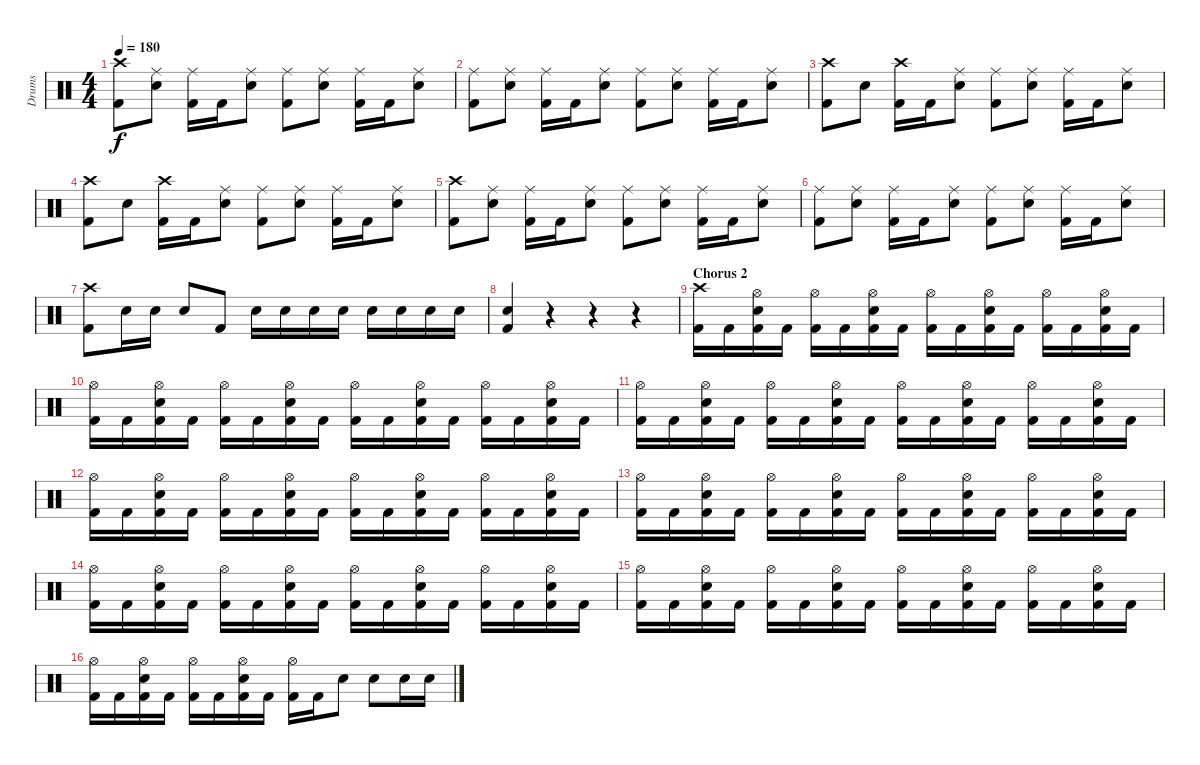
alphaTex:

\track ("Drums" "Drums") {instrument percussion}
\staff {score}
\articulation defaults
\ts (4 4)
\tempo 180
\clef neutral
\ks c
("Crash high (hit)" "Kick (hit) 2").8{dy f} ("Ride (middle)" "Snare (hit) 2").8 ("Ride (middle)" "Kick (hit) 2").16 "Kick (hit) 2".16 ("Ride (middle)" "Snare (hit) 2").8 ("Ride (middle)" "Kick (hit) 2").8 ("Ride (middle)" "Snare (hit) 2").8 ("Ride (middle)" "Kick (hit) 2").16 "Kick (hit) 2".16 ("Ride (middle)" "Snare (hit) 2").8 |
("Ride (middle)" "Kick (hit) 2").8 ("Ride (middle)" "Snare (hit) 2").8 ("Ride (middle)" "Kick (hit) 2").16 "Kick (hit) 2".16 ("Ride (middle)" "Snare (hit) 2").8 ("Ride (middle)" "Kick (hit) 2").8 ("Ride (middle)" "Snare (hit) 2").8 ("Ride (middle)" "Kick (hit) 2").16 "Kick (hit) 2".16 ("Ride (middle)" "Snare (hit) 2").8 |
("Crash high (hit)" "Kick (hit) 2").8 "Snare (hit) 2".8 ("Crash high (hit)" "Kick (hit) 2").16 "Kick (hit) 2".16 ("Ride (middle)" "Snare (hit) 2").8 ("Ride (middle)" "Kick (hit) 2").8 ("Ride (middle)" "Snare (hit) 2").8 ("Ride (middle)" "Kick (hit) 2").16 "Kick (hit) 2".16 ("Ride (middle)" "Snare (hit) 2").8 |
("Crash high (hit)" "Kick (hit) 2").8 "Snare (hit) 2".8 ("Crash high (hit)" "Kick (hit) 2").16 "Kick (hit) 2".16 ("Ride (middle)" "Snare (hit) 2").8 ("Ride (middle)" "Kick (hit) 2").8 ("Ride (middle)" "Snare (hit) 2").8 ("Ride (middle)" "Kick (hit) 2").16 "Kick (hit) 2".16 ("Ride (middle)" "Snare (hit) 2").8 |
("Crash high (hit)" "Kick (hit) 2").8 ("Ride (middle)" "Snare (hit) 2").8 ("Ride (middle)" "Kick (hit) 2").16 "Kick (hit) 2".16 ("Ride (middle)" "Snare (hit) 2").8 ("Ride (middle)" "Kick (hit) 2").8 ("Ride (middle)" "Snare (hit) 2").8 ("Ride (middle)" "Kick (hit) 2").16 "Kick (hit) 2".16 ("Ride (middle)" "Snare (hit) 2").8 |
("Ride (middle)" "Kick (hit) 2").8 ("Ride (middle)" "Snare (hit) 2").8 ("Ride (middle)" "Kick (hit) 2").16 "Kick (hit) 2".16 ("Ride (middle)" "Snare (hit) 2").8 ("Ride (middle)" "Kick (hit) 2").8 ("Ride (middle)" "Snare (hit) 2").8 ("Ride (middle)" "Kick (hit) 2").16 "Kick (hit) 2".16 ("Ride (middle)" "Snare (hit) 2").8 |
("Crash high (hit)" "Kick (hit) 2").8 "Snare (hit) 2".16 "Snare (hit) 2".16 "Snare (hit) 2".8 "Kick (hit) 2".8 "Snare (hit) 2".16 "Snare (hit) 2".16 "Snare (hit) 2".16 "Snare (hit) 2".16 "Snare (hit) 2".16 "Snare (hit) 2".16 "Snare (hit) 2".16 "Snare (hit) 2".16 |
("Snare (hit) 2" "Kick (hit) 2").4 r.4 r.4 r.4 |
\section ("" "Chorus 2")
("Crash high (hit)" "Kick (hit) 2").16 "Kick (hit) 2".16 ("Hi-Hat (open)" "Snare (hit) 2" "Kick (hit) 2").16 "Kick (hit) 2".16 ("Hi-Hat (open)" "Kick (hit) 2").16 "Kick (hit) 2".16 ("Hi-Hat (open)" "Snare (hit) 2" "Kick (hit) 2").16 "Kick (hit) 2".16 ("Hi-Hat (open)" "Kick (hit) 2").16 "Kick (hit) 2".16 ("Hi-Hat (open)" "Snare (hit) 2" "Kick (hit) 2").16 "Kick (hit) 2".16 ("Hi-Hat (open)" "Kick (hit) 2").16 "Kick (hit) 2".16 ("Hi-Hat (open)" "Snare (hit) 2" "Kick (hit) 2").16 "Kick (hit) 2".16 |
("Hi-Hat (open)" "Kick (hit) 2").16 "Kick (hit) 2".16 ("Hi-Hat (open)" "Snare (hit) 2" "Kick (hit) 2").16 "Kick (hit) 2".16 ("Hi-Hat (open)" "Kick (hit) 2").16 "Kick (hit) 2".16 ("Hi-Hat (open)" "Snare (hit) 2" "Kick (hit) 2").16 "Kick (hit) 2".16 ("Hi-Hat (open)" "Kick (hit) 2").16 "Kick (hit) 2".16 ("Hi-Hat (open)" "Snare (hit) 2" "Kick (hit) 2").16 "Kick (hit) 2".16 ("Hi-Hat (open)" "Kick (hit) 2").16 "Kick (hit) 2".16 ("Hi-Hat (open)" "Snare (hit) 2" "Kick (hit) 2").16 "Kick (hit) 2".16 |
("Hi-Hat (open)" "Kick (hit) 2").16 "Kick (hit) 2".16 ("Hi-Hat (open)" "Snare (hit) 2" "Kick (hit) 2").16 "Kick (hit) 2".16 ("Hi-Hat (open)" "Kick (hit) 2").16 "Kick (hit) 2".16 ("Hi-Hat (open)" "Snare (hit) 2" "Kick (hit) 2").16 "Kick (hit) 2".16 ("Hi-Hat (open)" "Kick (hit) 2").16 "Kick (hit) 2".16 ("Hi-Hat (open)" "Snare (hit) 2" "Kick (hit) 2").16 "Kick (hit) 2".16 ("Hi-Hat (open)" "Kick (hit) 2").16 "Kick (hit) 2".16 ("Hi-Hat (open)" "Snare (hit) 2" "Kick (hit) 2").16 "Kick (hit) 2".16 |
("Hi-Hat (open)" "Kick (hit) 2").16 "Kick (hit) 2".16 ("Hi-Hat (open)" "Snare (hit) 2" "Kick (hit) 2").16 "Kick (hit) 2".16 ("Hi-Hat (open)" "Kick (hit) 2").16 "Kick (hit) 2".16 ("Hi-Hat (open)" "Snare (hit) 2" "Kick (hit) 2").16 "Kick (hit) 2".16 ("Hi-Hat (open)" "Kick (hit) 2").16 "Kick (hit) 2".16 ("Hi-Hat (open)" "Snare (hit) 2" "Kick (hit) 2").16 "Kick (hit) 2".16 ("Hi-Hat (open)" "Kick (hit) 2").16 "Kick (hit) 2".16 ("Hi-Hat (open)" "Snare (hit) 2" "Kick (hit) 2").16 "Kick (hit) 2".16 |
("Hi-Hat (open)" "Kick (hit) 2").16 "Kick (hit) 2".16 ("Hi-Hat (open)" "Snare (hit) 2" "Kick (hit) 2").16 "Kick (hit) 2".16 ("Hi-Hat (open)" "Kick (hit) 2").16 "Kick (hit) 2".16 ("Hi-Hat (open)" "Snare (hit) 2" "Kick (hit) 2").16 "Kick (hit) 2".16 ("Hi-Hat (open)" "Kick (hit) 2").16 "Kick (hit) 2".16 ("Hi-Hat (open)" "Snare (hit) 2" "Kick (hit) 2").16 "Kick (hit) 2".16 ("Hi-Hat (open)" "Kick (hit) 2").16 "Kick (hit) 2".16 ("Hi-Hat (open)" "Snare (hit) 2" "Kick (hit) 2").16 "Kick (hit) 2".16 |
("Hi-Hat (open)" "Kick (hit) 2").16 "Kick (hit) 2".16 ("Hi-Hat (open)" "Snare (hit) 2" "Kick (hit) 2").16 "Kick (hit) 2".16 ("Hi-Hat (open)" "Kick (hit) 2").16 "Kick (hit) 2".16 ("Hi-Hat (open)" "Snare (hit) 2" "Kick (hit) 2").16 "Kick (hit) 2".16 ("Hi-Hat (open)" "Kick (hit) 2").16 "Kick (hit) 2".16 ("Hi-Hat (open)" "Snare (hit) 2" "Kick (hit) 2").16 "Kick (hit) 2".16 ("Hi-Hat (open)" "Kick (hit) 2").16 "Kick (hit) 2".16 ("Hi-Hat (open)" "Snare (hit) 2" "Kick (hit) 2").16 "Kick (hit) 2".16 |
("Hi-Hat (open)" "Kick (hit) 2").16 "Kick (hit) 2".16 ("Hi-Hat (open)" "Snare (hit) 2" "Kick (hit) 2").16 "Kick (hit) 2".16 ("Hi-Hat (open)" "Kick (hit) 2").16 "Kick (hit) 2".16 ("Hi-Hat (open)" "Snare (hit) 2" "Kick (hit) 2").16 "Kick (hit) 2".16 ("Hi-Hat (open)" "Kick (hit) 2").16 "Kick (hit) 2".16 ("Hi-Hat (open)" "Snare (hit) 2" "Kick (hit) 2").16 "Kick (hit) 2".16 ("Hi-Hat (open)" "Kick (hit) 2").16 "Kick (hit) 2".16 ("Hi-Hat (open)" "Snare (hit) 2" "Kick (hit) 2").16 "Kick (hit) 2".16 |
("Hi-Hat (open)" "Kick (hit) 2").16 "Kick (hit) 2".16 ("Hi-Hat (open)" "Snare (hit) 2" "Kick (hit) 2").16 "Kick (hit) 2".16 ("Hi-Hat (open)" "Kick (hit) 2").16 "Kick (hit) 2".16 ("Hi-Hat (open)" "Snare (hit) 2" "Kick (hit) 2").16 "Kick (hit) 2".16 ("Hi-Hat (open)" "Kick (hit) 2").16 "Kick (hit) 2".16 "Snare (hit) 2".8 "Snare (hit) 2".8 "Snare (hit) 2".16 "Snare (hit) 2".16
